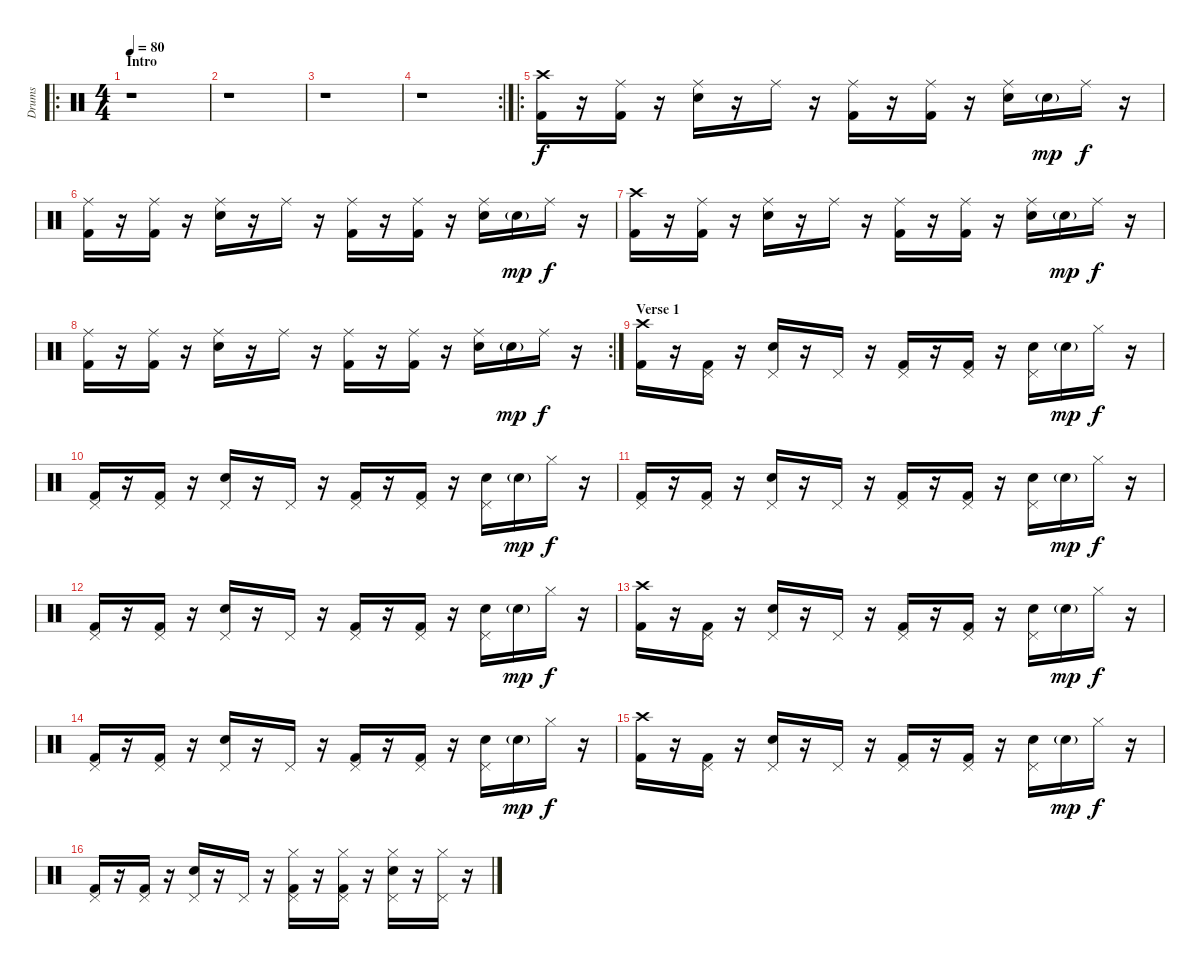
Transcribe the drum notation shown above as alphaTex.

\track ("Drums" "Drums") {instrument percussion}
\staff {score}
\articulation defaults
\ro
\ts (4 4)
\section ("" "Intro")
\tempo 80
\clef neutral
\ks c
r.1{dy f} |
r.1 |
r.1 |
\rc 2
r.1 |
\ro
("Crash high (hit)" "Kick (hit) 2").16 r.16 ("Ride (middle)" "Kick (hit) 2").16 r.16 ("Ride (middle)" "Electric Snare (hit)").16 r.16 "Ride (middle)".16 r.16 ("Ride (middle)" "Kick (hit) 2").16 r.16 ("Ride (middle)" "Kick (hit) 2").16 r.16 ("Ride (middle)" "Electric Snare (hit)").16 "Electric Snare (hit)"{g}.16{dy mp} "Ride (middle)".16{dy f} r.16 |
("Ride (middle)" "Kick (hit) 2").16 r.16 ("Ride (middle)" "Kick (hit) 2").16 r.16 ("Ride (middle)" "Electric Snare (hit)").16 r.16 "Ride (middle)".16 r.16 ("Ride (middle)" "Kick (hit) 2").16 r.16 ("Ride (middle)" "Kick (hit) 2").16 r.16 ("Ride (middle)" "Electric Snare (hit)").16 "Electric Snare (hit)"{g}.16{dy mp} "Ride (middle)".16{dy f} r.16 |
("Crash high (hit)" "Kick (hit) 2").16 r.16 ("Ride (middle)" "Kick (hit) 2").16 r.16 ("Ride (middle)" "Electric Snare (hit)").16 r.16 "Ride (middle)".16 r.16 ("Ride (middle)" "Kick (hit) 2").16 r.16 ("Ride (middle)" "Kick (hit) 2").16 r.16 ("Ride (middle)" "Electric Snare (hit)").16 "Electric Snare (hit)"{g}.16{dy mp} "Ride (middle)".16{dy f} r.16 |
\rc 2
("Ride (middle)" "Kick (hit) 2").16 r.16 ("Ride (middle)" "Kick (hit) 2").16 r.16 ("Ride (middle)" "Electric Snare (hit)").16 r.16 "Ride (middle)".16 r.16 ("Ride (middle)" "Kick (hit) 2").16 r.16 ("Ride (middle)" "Kick (hit) 2").16 r.16 ("Ride (middle)" "Electric Snare (hit)").16 "Electric Snare (hit)"{g}.16{dy mp} "Ride (middle)".16{dy f} r.16 |
\section ("" "Verse 1")
("Crash high (hit)" "Kick (hit) 2").16 r.16 ("Pedal Hi-Hat (hit)" "Kick (hit) 2").16 r.16 ("Pedal Hi-Hat (hit)" "Electric Snare (hit)").16 r.16 "Pedal Hi-Hat (hit)".16 r.16 ("Pedal Hi-Hat (hit)" "Kick (hit) 2").16 r.16 ("Pedal Hi-Hat (hit)" "Kick (hit) 2").16 r.16 ("Pedal Hi-Hat (hit)" "Electric Snare (hit)").16 "Electric Snare (hit)"{g}.16{dy mp} "Hi-Hat (closed)".16{dy f} r.16 |
("Pedal Hi-Hat (hit)" "Kick (hit) 2").16 r.16 ("Pedal Hi-Hat (hit)" "Kick (hit) 2").16 r.16 ("Pedal Hi-Hat (hit)" "Electric Snare (hit)").16 r.16 "Pedal Hi-Hat (hit)".16 r.16 ("Pedal Hi-Hat (hit)" "Kick (hit) 2").16 r.16 ("Pedal Hi-Hat (hit)" "Kick (hit) 2").16 r.16 ("Pedal Hi-Hat (hit)" "Electric Snare (hit)").16 "Electric Snare (hit)"{g}.16{dy mp} "Hi-Hat (closed)".16{dy f} r.16 |
("Pedal Hi-Hat (hit)" "Kick (hit) 2").16 r.16 ("Pedal Hi-Hat (hit)" "Kick (hit) 2").16 r.16 ("Pedal Hi-Hat (hit)" "Electric Snare (hit)").16 r.16 "Pedal Hi-Hat (hit)".16 r.16 ("Pedal Hi-Hat (hit)" "Kick (hit) 2").16 r.16 ("Pedal Hi-Hat (hit)" "Kick (hit) 2").16 r.16 ("Pedal Hi-Hat (hit)" "Electric Snare (hit)").16 "Electric Snare (hit)"{g}.16{dy mp} "Hi-Hat (closed)".16{dy f} r.16 |
("Pedal Hi-Hat (hit)" "Kick (hit) 2").16 r.16 ("Pedal Hi-Hat (hit)" "Kick (hit) 2").16 r.16 ("Pedal Hi-Hat (hit)" "Electric Snare (hit)").16 r.16 "Pedal Hi-Hat (hit)".16 r.16 ("Pedal Hi-Hat (hit)" "Kick (hit) 2").16 r.16 ("Pedal Hi-Hat (hit)" "Kick (hit) 2").16 r.16 ("Pedal Hi-Hat (hit)" "Electric Snare (hit)").16 "Electric Snare (hit)"{g}.16{dy mp} "Hi-Hat (closed)".16{dy f} r.16 |
("Crash high (hit)" "Kick (hit) 2").16 r.16 ("Pedal Hi-Hat (hit)" "Kick (hit) 2").16 r.16 ("Pedal Hi-Hat (hit)" "Electric Snare (hit)").16 r.16 "Pedal Hi-Hat (hit)".16 r.16 ("Pedal Hi-Hat (hit)" "Kick (hit) 2").16 r.16 ("Pedal Hi-Hat (hit)" "Kick (hit) 2").16 r.16 ("Pedal Hi-Hat (hit)" "Electric Snare (hit)").16 "Electric Snare (hit)"{g}.16{dy mp} "Hi-Hat (closed)".16{dy f} r.16 |
("Pedal Hi-Hat (hit)" "Kick (hit) 2").16 r.16 ("Pedal Hi-Hat (hit)" "Kick (hit) 2").16 r.16 ("Pedal Hi-Hat (hit)" "Electric Snare (hit)").16 r.16 "Pedal Hi-Hat (hit)".16 r.16 ("Pedal Hi-Hat (hit)" "Kick (hit) 2").16 r.16 ("Pedal Hi-Hat (hit)" "Kick (hit) 2").16 r.16 ("Pedal Hi-Hat (hit)" "Electric Snare (hit)").16 "Electric Snare (hit)"{g}.16{dy mp} "Hi-Hat (closed)".16{dy f} r.16 |
("Crash high (hit)" "Kick (hit) 2").16 r.16 ("Pedal Hi-Hat (hit)" "Kick (hit) 2").16 r.16 ("Pedal Hi-Hat (hit)" "Electric Snare (hit)").16 r.16 "Pedal Hi-Hat (hit)".16 r.16 ("Pedal Hi-Hat (hit)" "Kick (hit) 2").16 r.16 ("Pedal Hi-Hat (hit)" "Kick (hit) 2").16 r.16 ("Pedal Hi-Hat (hit)" "Electric Snare (hit)").16 "Electric Snare (hit)"{g}.16{dy mp} "Hi-Hat (closed)".16{dy f} r.16 |
("Pedal Hi-Hat (hit)" "Kick (hit) 2").16 r.16 ("Pedal Hi-Hat (hit)" "Kick (hit) 2").16 r.16 ("Pedal Hi-Hat (hit)" "Electric Snare (hit)").16 r.16 "Pedal Hi-Hat (hit)".16 r.16 ("Pedal Hi-Hat (hit)" "Hi-Hat (closed)" "Kick (hit) 2").16 r.16 ("Pedal Hi-Hat (hit)" "Hi-Hat (closed)" "Kick (hit) 2").16 r.16 ("Pedal Hi-Hat (hit)" "Hi-Hat (closed)" "Electric Snare (hit)").16 r.16 ("Pedal Hi-Hat (hit)" "Hi-Hat (closed)").16 r.16
